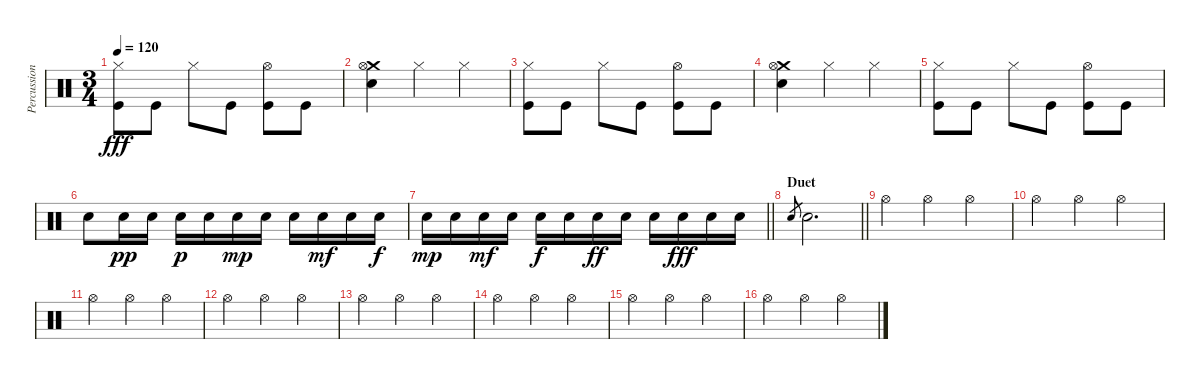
\track ("Percussion" "Percussion") {instrument percussion}
\staff {score}
\articulation defaults
\ts (3 4)
\tempo 120
\clef neutral
\ks c
("Hi-Hat (closed)" "Kick (hit)").8{dy fff} "Kick (hit)".8 "Hi-Hat (closed)".8 "Kick (hit)".8 ("Hi-Hat (open)" "Kick (hit)").8 "Kick (hit)".8 |
("Crash medium (hit)" "Hi-Hat (open)" "Electric Snare (hit)").4 "Hi-Hat (closed)".4 "Hi-Hat (closed)".4 |
("Hi-Hat (closed)" "Kick (hit)").8 "Kick (hit)".8 "Hi-Hat (closed)".8 "Kick (hit)".8 ("Hi-Hat (open)" "Kick (hit)").8 "Kick (hit)".8 |
("Crash medium (hit)" "Hi-Hat (open)" "Electric Snare (hit)").4 "Hi-Hat (closed)".4 "Hi-Hat (closed)".4 |
("Hi-Hat (closed)" "Kick (hit)").8 "Kick (hit)".8 "Hi-Hat (closed)".8 "Kick (hit)".8 ("Hi-Hat (open)" "Kick (hit)").8 "Kick (hit)".8 |
"Electric Snare (hit)".8 "Electric Snare (hit)".16{dy pp} "Electric Snare (hit)".16 "Electric Snare (hit)".16{dy p} "Electric Snare (hit)".16 "Electric Snare (hit)".16{dy mp} "Electric Snare (hit)".16 "Electric Snare (hit)".16 "Electric Snare (hit)".16{dy mf} "Electric Snare (hit)".16 "Electric Snare (hit)".16{dy f} |
\barLineRight lightlight "Electric Snare (hit)".16{dy mp} "Electric Snare (hit)".16 "Electric Snare (hit)".16{dy mf} "Electric Snare (hit)".16 "Electric Snare (hit)".16{dy f} "Electric Snare (hit)".16 "Electric Snare (hit)".16{dy ff} "Electric Snare (hit)".16 "Electric Snare (hit)".16 "Electric Snare (hit)".16{dy fff} "Electric Snare (hit)".16 "Electric Snare (hit)".16
|
\section ("" "Duet")
\barLineRight lightlight "Electric Snare (hit)".8{gr} "Electric Snare (hit)".2{d}
|
"Hi-Hat (open)".4 "Hi-Hat (open)".4 "Hi-Hat (open)".4 |
"Hi-Hat (open)".4 "Hi-Hat (open)".4 "Hi-Hat (open)".4 |
"Hi-Hat (open)".4 "Hi-Hat (open)".4 "Hi-Hat (open)".4 |
"Hi-Hat (open)".4 "Hi-Hat (open)".4 "Hi-Hat (open)".4 |
"Hi-Hat (open)".4 "Hi-Hat (open)".4 "Hi-Hat (open)".4 |
"Hi-Hat (open)".4 "Hi-Hat (open)".4 "Hi-Hat (open)".4 |
"Hi-Hat (open)".4 "Hi-Hat (open)".4 "Hi-Hat (open)".4 |
"Hi-Hat (open)".4 "Hi-Hat (open)".4 "Hi-Hat (open)".4
